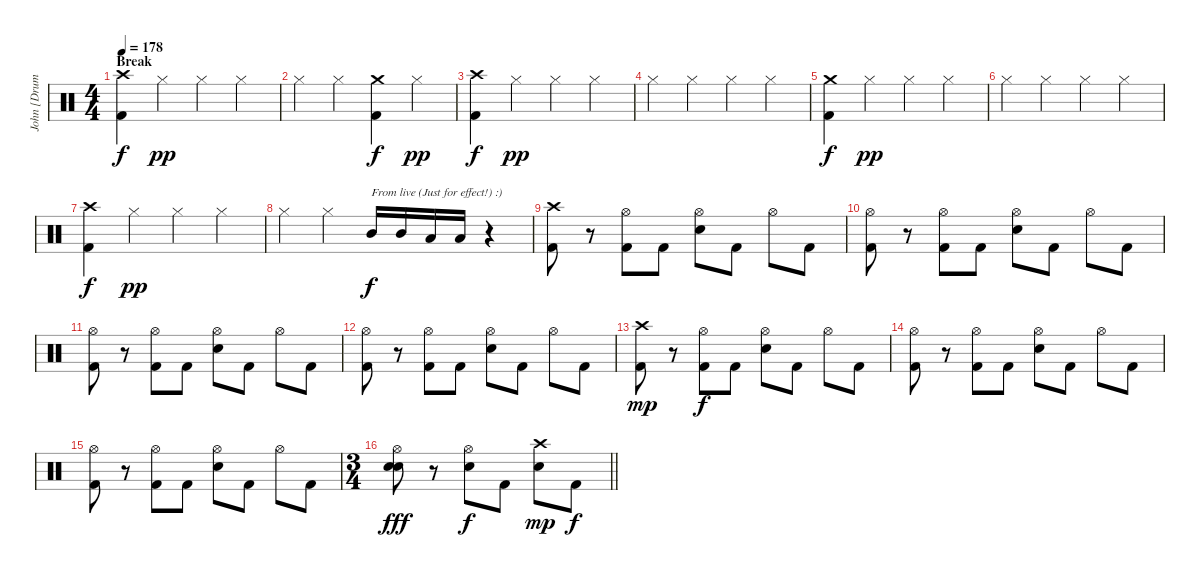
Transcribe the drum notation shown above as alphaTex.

\track ("John [Drums]" "John [Drum") {instrument percussion}
\staff {score}
\articulation defaults
\ts (4 4)
\section ("" "Break")
\tempo 178
\clef neutral
\ks c
("Crash high (hit)" "Kick (hit) 2").4{dy f} "Hi-Hat (closed)".4{dy pp} "Hi-Hat (closed)".4 "Hi-Hat (closed)".4 |
"Hi-Hat (closed)".4 "Hi-Hat (closed)".4 ("Crash medium (hit)" "Kick (hit) 2").4{dy f} "Hi-Hat (closed)".4{dy pp} |
("Crash high (hit)" "Kick (hit) 2").4{dy f} "Hi-Hat (closed)".4{dy pp} "Hi-Hat (closed)".4 "Hi-Hat (closed)".4 |
"Hi-Hat (closed)".4 "Hi-Hat (closed)".4 "Hi-Hat (closed)".4 "Hi-Hat (closed)".4 |
("Crash medium (hit)" "Kick (hit) 2").4{dy f} "Hi-Hat (closed)".4{dy pp} "Hi-Hat (closed)".4 "Hi-Hat (closed)".4 |
"Hi-Hat (closed)".4 "Hi-Hat (closed)".4 "Hi-Hat (closed)".4 "Hi-Hat (closed)".4 |
("Crash high (hit)" "Kick (hit) 2").4{dy f} "Hi-Hat (closed)".4{dy pp} "Hi-Hat (closed)".4 "Hi-Hat (closed)".4 |
"Hi-Hat (closed)".4 "Hi-Hat (closed)".4 "Mid Tom (hit)".16{txt "From live (Just for effect!) :)" dy f} "Mid Tom (hit)".16 "Low Tom (hit)".16 "Low Tom (hit)".16 r.4 |
("Crash high (hit)" "Kick (hit) 2").8 r.8 ("Hi-Hat (open)" "Kick (hit) 2").8 "Kick (hit) 2".8 ("Hi-Hat (open)" "Electric Snare (hit)").8 "Kick (hit) 2".8 "Hi-Hat (open)".8 "Kick (hit) 2".8 |
("Hi-Hat (open)" "Kick (hit) 2").8 r.8 ("Hi-Hat (open)" "Kick (hit) 2").8 "Kick (hit) 2".8 ("Hi-Hat (open)" "Electric Snare (hit)").8 "Kick (hit) 2".8 "Hi-Hat (open)".8 "Kick (hit) 2".8 |
("Hi-Hat (open)" "Kick (hit) 2").8 r.8 ("Hi-Hat (open)" "Kick (hit) 2").8 "Kick (hit) 2".8 ("Hi-Hat (open)" "Electric Snare (hit)").8 "Kick (hit) 2".8 "Hi-Hat (open)".8 "Kick (hit) 2".8 |
("Hi-Hat (open)" "Kick (hit) 2").8 r.8 ("Hi-Hat (open)" "Kick (hit) 2").8 "Kick (hit) 2".8 ("Hi-Hat (open)" "Electric Snare (hit)").8 "Kick (hit) 2".8 "Hi-Hat (open)".8 "Kick (hit) 2".8 |
("Crash high (hit)" "Kick (hit) 2").8{dy mp} r.8 ("Hi-Hat (open)" "Kick (hit) 2").8{dy f} "Kick (hit) 2".8 ("Hi-Hat (open)" "Electric Snare (hit)").8 "Kick (hit) 2".8 "Hi-Hat (open)".8 "Kick (hit) 2".8 |
("Hi-Hat (open)" "Kick (hit) 2").8 r.8 ("Hi-Hat (open)" "Kick (hit) 2").8 "Kick (hit) 2".8 ("Hi-Hat (open)" "Electric Snare (hit)").8 "Kick (hit) 2".8 "Hi-Hat (open)".8 "Kick (hit) 2".8 |
("Hi-Hat (open)" "Kick (hit) 2").8 r.8 ("Hi-Hat (open)" "Kick (hit) 2").8 "Kick (hit) 2".8 ("Hi-Hat (open)" "Electric Snare (hit)").8 "Kick (hit) 2".8 "Hi-Hat (open)".8 "Kick (hit) 2".8 |
\ts (3 4)
\barLineRight lightlight
("Hi-Hat (open)" "Electric Snare (hit)" "Electric Snare (hit)").8{dy fff} r.8 ("Hi-Hat (open)" "Electric Snare (hit)").8{dy f} "Kick (hit) 2".8 ("Crash high (hit)" "Electric Snare (hit)").8{dy mp} "Kick (hit) 2".8{dy f}
